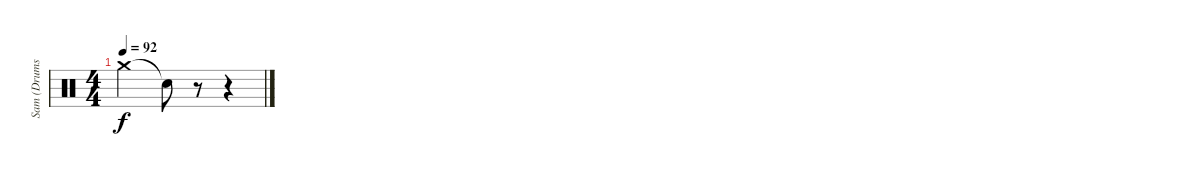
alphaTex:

\track ("Sam (Drums)" "Sam (Drums") {instrument percussion}
\staff {score}
\articulation defaults
\ts (4 4)
\tempo 92
\clef neutral
\ks c "Crash medium (hit)"{t}.2{dy f} "Snare (hit)"{t}.8
r.8 r.4
